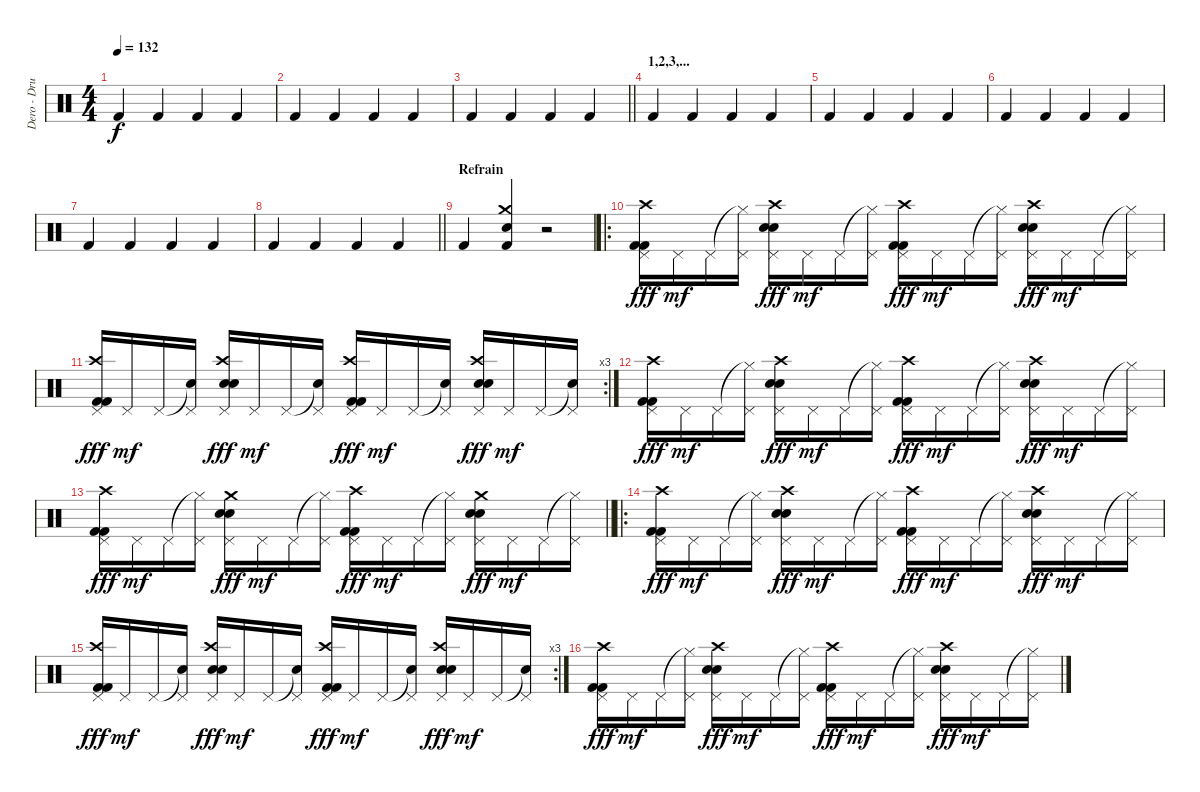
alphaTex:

\track ("Dero - Drums" "Dero - Dru") {instrument percussion}
\staff {score}
\articulation defaults
\ts (4 4)
\tempo 132
\clef neutral
\ks c "Kick (hit) 2".4{dy f} "Kick (hit) 2".4 "Kick (hit) 2".4 "Kick (hit) 2".4
|
"Kick (hit) 2".4 "Kick (hit) 2".4 "Kick (hit) 2".4 "Kick (hit) 2".4 |
\barLineRight lightlight "Kick (hit) 2".4 "Kick (hit) 2".4 "Kick (hit) 2".4 "Kick (hit) 2".4
|
\section ("" "1,2,3,...")
"Kick (hit) 2".4 "Kick (hit) 2".4 "Kick (hit) 2".4 "Kick (hit) 2".4 |
"Kick (hit) 2".4 "Kick (hit) 2".4 "Kick (hit) 2".4 "Kick (hit) 2".4 |
"Kick (hit) 2".4 "Kick (hit) 2".4 "Kick (hit) 2".4 "Kick (hit) 2".4 |
"Kick (hit) 2".4 "Kick (hit) 2".4 "Kick (hit) 2".4 "Kick (hit) 2".4 |
\barLineRight lightlight "Kick (hit) 2".4 "Kick (hit) 2".4 "Kick (hit) 2".4 "Kick (hit) 2".4
|
\section ("" "Refrain")
"Kick (hit) 2".4 ("Crash medium (hit)" "Electric Snare (hit)" "Kick (hit) 2").4 r.2 |
\ro
("Crash high (hit)" "Pedal Hi-Hat (hit)" "Kick (hit) 2" "Kick (hit) 2").16{dy fff} "Pedal Hi-Hat (hit)".16{dy mf} "Pedal Hi-Hat (hit)".16 ("Hi-Hat (closed)"{t} "Pedal Hi-Hat (hit)").16 ("Crash high (hit)" "Pedal Hi-Hat (hit)" "Electric Snare (hit)" "Electric Snare (hit)").16{dy fff} "Pedal Hi-Hat (hit)".16{dy mf} "Pedal Hi-Hat (hit)".16 ("Hi-Hat (closed)"{t} "Pedal Hi-Hat (hit)").16 ("Crash high (hit)" "Pedal Hi-Hat (hit)" "Kick (hit) 2" "Kick (hit) 2").16{dy fff} "Pedal Hi-Hat (hit)".16{dy mf} "Pedal Hi-Hat (hit)".16 ("Hi-Hat (closed)"{t} "Pedal Hi-Hat (hit)").16 ("Crash high (hit)" "Pedal Hi-Hat (hit)" "Electric Snare (hit)" "Electric Snare (hit)").16{dy fff} "Pedal Hi-Hat (hit)".16{dy mf} "Pedal Hi-Hat (hit)".16 ("Hi-Hat (closed)"{t} "Pedal Hi-Hat (hit)").16 |
\rc 3
("Crash high (hit)" "Pedal Hi-Hat (hit)" "Kick (hit) 2" "Kick (hit) 2").16{dy fff} "Pedal Hi-Hat (hit)".16{dy mf} "Pedal Hi-Hat (hit)".16 ("Snare (hit)"{t} "Pedal Hi-Hat (hit)").16 ("Crash high (hit)" "Pedal Hi-Hat (hit)" "Electric Snare (hit)" "Electric Snare (hit)").16{dy fff} "Pedal Hi-Hat (hit)".16{dy mf} "Pedal Hi-Hat (hit)".16 ("Snare (hit)"{t} "Pedal Hi-Hat (hit)").16 ("Crash high (hit)" "Pedal Hi-Hat (hit)" "Kick (hit) 2" "Kick (hit) 2").16{dy fff} "Pedal Hi-Hat (hit)".16{dy mf} "Pedal Hi-Hat (hit)".16 ("Snare (hit)"{t} "Pedal Hi-Hat (hit)").16 ("Crash high (hit)" "Pedal Hi-Hat (hit)" "Electric Snare (hit)" "Electric Snare (hit)").16{dy fff} "Pedal Hi-Hat (hit)".16{dy mf} "Pedal Hi-Hat (hit)".16 ("Snare (hit)"{t} "Pedal Hi-Hat (hit)").16 |
("Crash high (hit)" "Pedal Hi-Hat (hit)" "Kick (hit) 2" "Kick (hit) 2").16{dy fff} "Pedal Hi-Hat (hit)".16{dy mf} "Pedal Hi-Hat (hit)".16 ("Hi-Hat (closed)"{t} "Pedal Hi-Hat (hit)").16 ("Crash high (hit)" "Pedal Hi-Hat (hit)" "Electric Snare (hit)" "Electric Snare (hit)").16{dy fff} "Pedal Hi-Hat (hit)".16{dy mf} "Pedal Hi-Hat (hit)".16 ("Hi-Hat (closed)"{t} "Pedal Hi-Hat (hit)").16 ("Crash high (hit)" "Pedal Hi-Hat (hit)" "Kick (hit) 2" "Kick (hit) 2").16{dy fff} "Pedal Hi-Hat (hit)".16{dy mf} "Pedal Hi-Hat (hit)".16 ("Hi-Hat (closed)"{t} "Pedal Hi-Hat (hit)").16 ("Crash high (hit)" "Pedal Hi-Hat (hit)" "Electric Snare (hit)" "Electric Snare (hit)").16{dy fff} "Pedal Hi-Hat (hit)".16{dy mf} "Pedal Hi-Hat (hit)".16 ("Hi-Hat (closed)"{t} "Pedal Hi-Hat (hit)").16 |
\barLineRight lightlight
("Crash high (hit)" "Pedal Hi-Hat (hit)" "Kick (hit) 2" "Kick (hit) 2").16{dy fff} "Pedal Hi-Hat (hit)".16{dy mf} "Pedal Hi-Hat (hit)".16 ("Hi-Hat (closed)"{t} "Pedal Hi-Hat (hit)").16 ("Crash medium (hit)" "Pedal Hi-Hat (hit)" "Electric Snare (hit)" "Electric Snare (hit)").16{dy fff} "Pedal Hi-Hat (hit)".16{dy mf} "Pedal Hi-Hat (hit)".16 ("Hi-Hat (closed)"{t} "Pedal Hi-Hat (hit)").16 ("Crash high (hit)" "Pedal Hi-Hat (hit)" "Kick (hit) 2" "Kick (hit) 2").16{dy fff} "Pedal Hi-Hat (hit)".16{dy mf} "Pedal Hi-Hat (hit)".16 ("Hi-Hat (closed)"{t} "Pedal Hi-Hat (hit)").16 ("Crash medium (hit)" "Pedal Hi-Hat (hit)" "Electric Snare (hit)" "Electric Snare (hit)").16{dy fff} "Pedal Hi-Hat (hit)".16{dy mf} "Pedal Hi-Hat (hit)".16 ("Hi-Hat (closed)"{t} "Pedal Hi-Hat (hit)").16 |
\ro
("Crash high (hit)" "Pedal Hi-Hat (hit)" "Kick (hit) 2" "Kick (hit) 2").16{dy fff} "Pedal Hi-Hat (hit)".16{dy mf} "Pedal Hi-Hat (hit)".16 ("Hi-Hat (closed)"{t} "Pedal Hi-Hat (hit)").16 ("Crash high (hit)" "Pedal Hi-Hat (hit)" "Electric Snare (hit)" "Electric Snare (hit)").16{dy fff} "Pedal Hi-Hat (hit)".16{dy mf} "Pedal Hi-Hat (hit)".16 ("Hi-Hat (closed)"{t} "Pedal Hi-Hat (hit)").16 ("Crash high (hit)" "Pedal Hi-Hat (hit)" "Kick (hit) 2" "Kick (hit) 2").16{dy fff} "Pedal Hi-Hat (hit)".16{dy mf} "Pedal Hi-Hat (hit)".16 ("Hi-Hat (closed)"{t} "Pedal Hi-Hat (hit)").16 ("Crash high (hit)" "Pedal Hi-Hat (hit)" "Electric Snare (hit)" "Electric Snare (hit)").16{dy fff} "Pedal Hi-Hat (hit)".16{dy mf} "Pedal Hi-Hat (hit)".16 ("Hi-Hat (closed)"{t} "Pedal Hi-Hat (hit)").16 |
\rc 3
("Crash high (hit)" "Pedal Hi-Hat (hit)" "Kick (hit) 2" "Kick (hit) 2").16{dy fff} "Pedal Hi-Hat (hit)".16{dy mf} "Pedal Hi-Hat (hit)".16 ("Snare (hit)"{t} "Pedal Hi-Hat (hit)").16 ("Crash high (hit)" "Pedal Hi-Hat (hit)" "Electric Snare (hit)" "Electric Snare (hit)").16{dy fff} "Pedal Hi-Hat (hit)".16{dy mf} "Pedal Hi-Hat (hit)".16 ("Snare (hit)"{t} "Pedal Hi-Hat (hit)").16 ("Crash high (hit)" "Pedal Hi-Hat (hit)" "Kick (hit) 2" "Kick (hit) 2").16{dy fff} "Pedal Hi-Hat (hit)".16{dy mf} "Pedal Hi-Hat (hit)".16 ("Snare (hit)"{t} "Pedal Hi-Hat (hit)").16 ("Crash high (hit)" "Pedal Hi-Hat (hit)" "Electric Snare (hit)" "Electric Snare (hit)").16{dy fff} "Pedal Hi-Hat (hit)".16{dy mf} "Pedal Hi-Hat (hit)".16 ("Snare (hit)"{t} "Pedal Hi-Hat (hit)").16 |
("Crash high (hit)" "Pedal Hi-Hat (hit)" "Kick (hit) 2" "Kick (hit) 2").16{dy fff} "Pedal Hi-Hat (hit)".16{dy mf} "Pedal Hi-Hat (hit)".16 ("Hi-Hat (closed)"{t} "Pedal Hi-Hat (hit)").16 ("Crash high (hit)" "Pedal Hi-Hat (hit)" "Electric Snare (hit)" "Electric Snare (hit)").16{dy fff} "Pedal Hi-Hat (hit)".16{dy mf} "Pedal Hi-Hat (hit)".16 ("Hi-Hat (closed)"{t} "Pedal Hi-Hat (hit)").16 ("Crash high (hit)" "Pedal Hi-Hat (hit)" "Kick (hit) 2" "Kick (hit) 2").16{dy fff} "Pedal Hi-Hat (hit)".16{dy mf} "Pedal Hi-Hat (hit)".16 ("Hi-Hat (closed)"{t} "Pedal Hi-Hat (hit)").16 ("Crash high (hit)" "Pedal Hi-Hat (hit)" "Electric Snare (hit)" "Electric Snare (hit)").16{dy fff} "Pedal Hi-Hat (hit)".16{dy mf} "Pedal Hi-Hat (hit)".16 ("Hi-Hat (closed)"{t} "Pedal Hi-Hat (hit)").16
